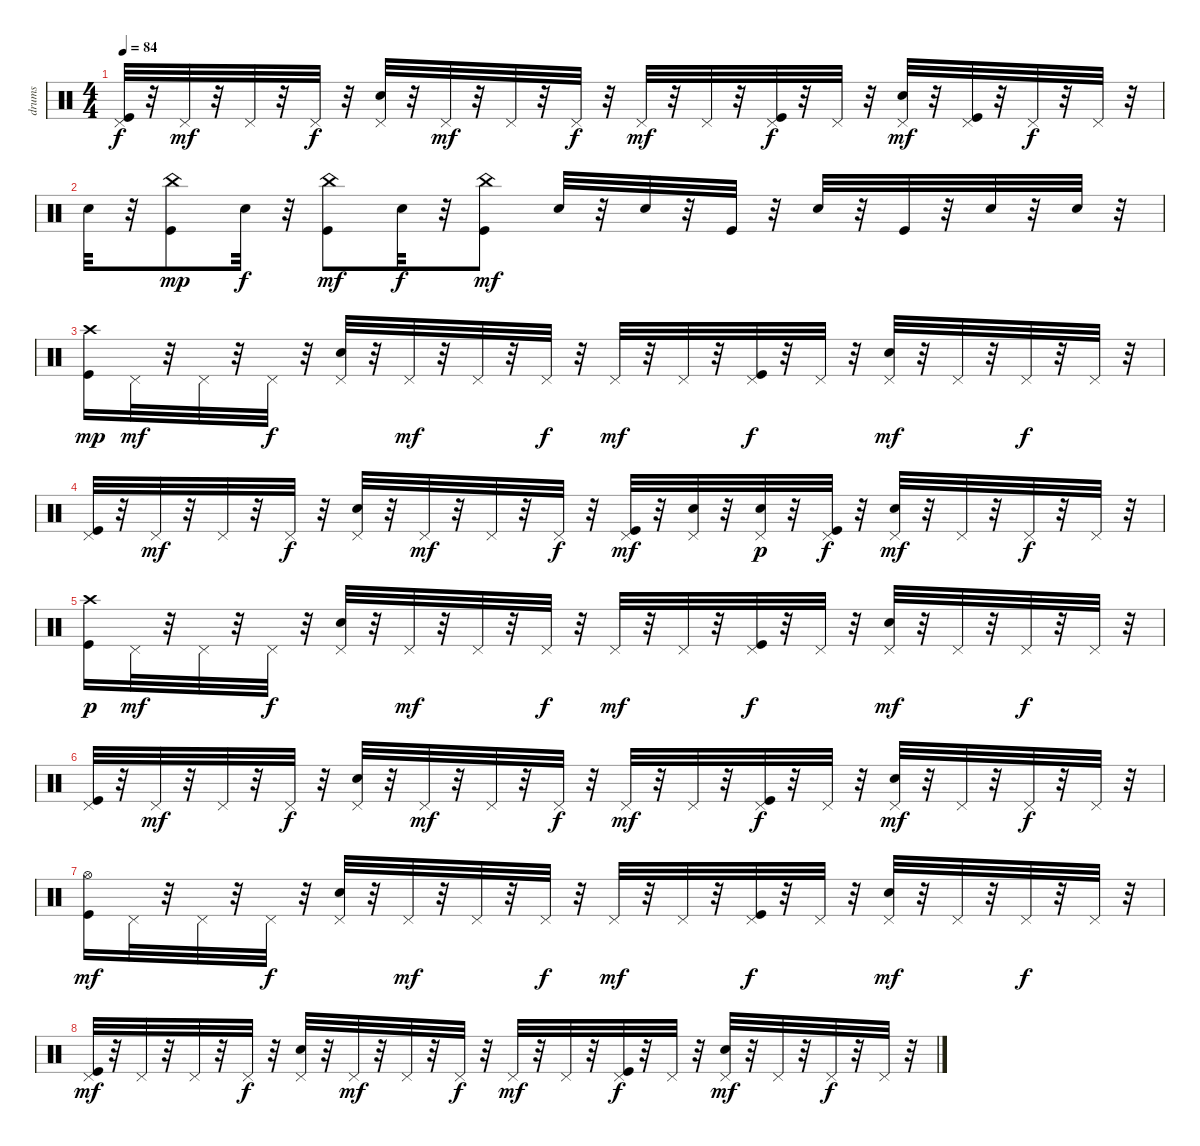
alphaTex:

\track ("drums" "drums") {instrument percussion}
\staff {score}
\articulation defaults
\ts (4 4)
\tempo 84
\clef neutral
\ks c
("Kick (hit)" "Pedal Hi-Hat (hit)").32{dy f} r.32 "Pedal Hi-Hat (hit)".32{dy mf} r.32 "Pedal Hi-Hat (hit)".32 r.32 "Pedal Hi-Hat (hit)".32{dy f} r.32 ("Snare (hit) 2" "Pedal Hi-Hat (hit)").32 r.32 "Pedal Hi-Hat (hit)".32{dy mf} r.32 "Pedal Hi-Hat (hit)".32 r.32 "Pedal Hi-Hat (hit)".32{dy f} r.32 "Pedal Hi-Hat (hit)".32{dy mf} r.32 "Pedal Hi-Hat (hit)".32 r.32 ("Kick (hit)" "Pedal Hi-Hat (hit)").32{dy f} r.32 "Pedal Hi-Hat (hit)".32 r.32 ("Snare (hit) 2" "Pedal Hi-Hat (hit)").32{dy mf} r.32 ("Kick (hit)" "Pedal Hi-Hat (hit)").32 r.32 "Pedal Hi-Hat (hit)".32{dy f} r.32 "Pedal Hi-Hat (hit)".32 r.32 |
"Snare (hit) 2".32 r.32 ("Kick (hit)" "China (hit)").8{dy mp} "Snare (hit) 2".32{dy f} r.32 ("Kick (hit)" "China (hit)").8{dy mf} "Snare (hit) 2".32{dy f} r.32 ("Kick (hit)" "China (hit)").8{dy mf} "Snare (hit) 2".32 r.32 "Snare (hit) 2".32 r.32 "Kick (hit)".32 r.32 "Snare (hit) 2".32 r.32 "Kick (hit)".32 r.32 "Snare (hit) 2".32 r.32 "Snare (hit) 2".32 r.32 |
("Kick (hit)" "Crash high (hit)").16{dy mp} "Pedal Hi-Hat (hit)".32{dy mf} r.32 "Pedal Hi-Hat (hit)".32 r.32 "Pedal Hi-Hat (hit)".32{dy f} r.32 ("Snare (hit) 2" "Pedal Hi-Hat (hit)").32 r.32 "Pedal Hi-Hat (hit)".32{dy mf} r.32 "Pedal Hi-Hat (hit)".32 r.32 "Pedal Hi-Hat (hit)".32{dy f} r.32 "Pedal Hi-Hat (hit)".32{dy mf} r.32 "Pedal Hi-Hat (hit)".32 r.32 ("Kick (hit)" "Pedal Hi-Hat (hit)").32{dy f} r.32 "Pedal Hi-Hat (hit)".32 r.32 ("Snare (hit) 2" "Pedal Hi-Hat (hit)").32{dy mf} r.32 "Pedal Hi-Hat (hit)".32 r.32 "Pedal Hi-Hat (hit)".32{dy f} r.32 "Pedal Hi-Hat (hit)".32 r.32 |
("Kick (hit)" "Pedal Hi-Hat (hit)").32 r.32 "Pedal Hi-Hat (hit)".32{dy mf} r.32 "Pedal Hi-Hat (hit)".32 r.32 "Pedal Hi-Hat (hit)".32{dy f} r.32 ("Snare (hit) 2" "Pedal Hi-Hat (hit)").32 r.32 "Pedal Hi-Hat (hit)".32{dy mf} r.32 "Pedal Hi-Hat (hit)".32 r.32 "Pedal Hi-Hat (hit)".32{dy f} r.32 ("Kick (hit)" "Pedal Hi-Hat (hit)").32{dy mf} r.32 ("Snare (hit) 2" "Pedal Hi-Hat (hit)").32 r.32 ("Snare (hit) 2" "Pedal Hi-Hat (hit)").32{dy p} r.32 ("Kick (hit)" "Pedal Hi-Hat (hit)").32{dy f} r.32 ("Snare (hit) 2" "Pedal Hi-Hat (hit)").32{dy mf} r.32 "Pedal Hi-Hat (hit)".32 r.32 "Pedal Hi-Hat (hit)".32{dy f} r.32 "Pedal Hi-Hat (hit)".32 r.32 |
("Kick (hit)" "Crash high (hit)").16{dy p} "Pedal Hi-Hat (hit)".32{dy mf} r.32 "Pedal Hi-Hat (hit)".32 r.32 "Pedal Hi-Hat (hit)".32{dy f} r.32 ("Snare (hit) 2" "Pedal Hi-Hat (hit)").32 r.32 "Pedal Hi-Hat (hit)".32{dy mf} r.32 "Pedal Hi-Hat (hit)".32 r.32 "Pedal Hi-Hat (hit)".32{dy f} r.32 "Pedal Hi-Hat (hit)".32{dy mf} r.32 "Pedal Hi-Hat (hit)".32 r.32 ("Kick (hit)" "Pedal Hi-Hat (hit)").32{dy f} r.32 "Pedal Hi-Hat (hit)".32 r.32 ("Snare (hit) 2" "Pedal Hi-Hat (hit)").32{dy mf} r.32 "Pedal Hi-Hat (hit)".32 r.32 "Pedal Hi-Hat (hit)".32{dy f} r.32 "Pedal Hi-Hat (hit)".32 r.32 |
("Kick (hit)" "Pedal Hi-Hat (hit)").32 r.32 "Pedal Hi-Hat (hit)".32{dy mf} r.32 "Pedal Hi-Hat (hit)".32 r.32 "Pedal Hi-Hat (hit)".32{dy f} r.32 ("Snare (hit) 2" "Pedal Hi-Hat (hit)").32 r.32 "Pedal Hi-Hat (hit)".32{dy mf} r.32 "Pedal Hi-Hat (hit)".32 r.32 "Pedal Hi-Hat (hit)".32{dy f} r.32 "Pedal Hi-Hat (hit)".32{dy mf} r.32 "Pedal Hi-Hat (hit)".32 r.32 ("Kick (hit)" "Pedal Hi-Hat (hit)").32{dy f} r.32 "Pedal Hi-Hat (hit)".32 r.32 ("Snare (hit) 2" "Pedal Hi-Hat (hit)").32{dy mf} r.32 "Pedal Hi-Hat (hit)".32 r.32 "Pedal Hi-Hat (hit)".32{dy f} r.32 "Pedal Hi-Hat (hit)".32 r.32 |
("Kick (hit)" "Hi-Hat (open)").16{dy mf} "Pedal Hi-Hat (hit)".32 r.32 "Pedal Hi-Hat (hit)".32 r.32 "Pedal Hi-Hat (hit)".32{dy f} r.32 ("Snare (hit) 2" "Pedal Hi-Hat (hit)").32 r.32 "Pedal Hi-Hat (hit)".32{dy mf} r.32 "Pedal Hi-Hat (hit)".32 r.32 "Pedal Hi-Hat (hit)".32{dy f} r.32 "Pedal Hi-Hat (hit)".32{dy mf} r.32 "Pedal Hi-Hat (hit)".32 r.32 ("Kick (hit)" "Pedal Hi-Hat (hit)").32{dy f} r.32 "Pedal Hi-Hat (hit)".32 r.32 ("Snare (hit) 2" "Pedal Hi-Hat (hit)").32{dy mf} r.32 "Pedal Hi-Hat (hit)".32 r.32 "Pedal Hi-Hat (hit)".32{dy f} r.32 "Pedal Hi-Hat (hit)".32 r.32 |
("Kick (hit)" "Pedal Hi-Hat (hit)").32{dy mf} r.32 "Pedal Hi-Hat (hit)".32 r.32 "Pedal Hi-Hat (hit)".32 r.32 "Pedal Hi-Hat (hit)".32{dy f} r.32 ("Snare (hit) 2" "Pedal Hi-Hat (hit)").32 r.32 "Pedal Hi-Hat (hit)".32{dy mf} r.32 "Pedal Hi-Hat (hit)".32 r.32 "Pedal Hi-Hat (hit)".32{dy f} r.32 "Pedal Hi-Hat (hit)".32{dy mf} r.32 "Pedal Hi-Hat (hit)".32 r.32 ("Kick (hit)" "Pedal Hi-Hat (hit)").32{dy f} r.32 "Pedal Hi-Hat (hit)".32 r.32 ("Snare (hit) 2" "Pedal Hi-Hat (hit)").32{dy mf} r.32 "Pedal Hi-Hat (hit)".32 r.32 "Pedal Hi-Hat (hit)".32{dy f} r.32 "Pedal Hi-Hat (hit)".32 r.32
